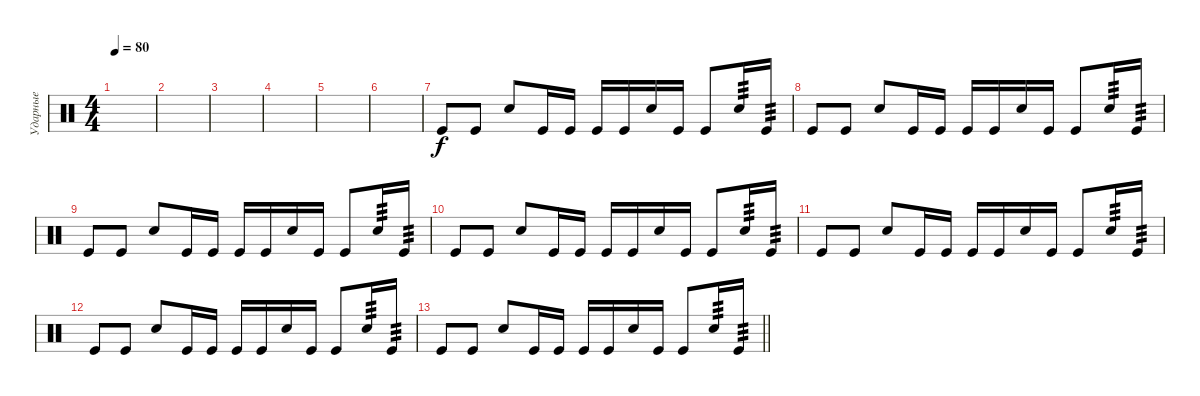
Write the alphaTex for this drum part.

\track ("Ударные" "Ударные") {instrument percussion}
\staff {score}
\articulation defaults
\ts (4 4)
\tempo 80
\clef neutral
\ks c
|
|
|
|
|
|
"Kick (hit)".8 "Kick (hit)".8 "Electric Snare (hit)".8 "Kick (hit)".16 "Kick (hit)".16 "Kick (hit)".16 "Kick (hit)".16 "Electric Snare (hit)".16 "Kick (hit)".16 "Kick (hit)".8 "Electric Snare (hit)".16{tp 3} "Kick (hit)".16{tp 3} |
"Kick (hit)".8 "Kick (hit)".8 "Electric Snare (hit)".8 "Kick (hit)".16 "Kick (hit)".16 "Kick (hit)".16 "Kick (hit)".16 "Electric Snare (hit)".16 "Kick (hit)".16 "Kick (hit)".8 "Electric Snare (hit)".16{tp 3} "Kick (hit)".16{tp 3} |
"Kick (hit)".8 "Kick (hit)".8 "Electric Snare (hit)".8 "Kick (hit)".16 "Kick (hit)".16 "Kick (hit)".16 "Kick (hit)".16 "Electric Snare (hit)".16 "Kick (hit)".16 "Kick (hit)".8 "Electric Snare (hit)".16{tp 3} "Kick (hit)".16{tp 3} |
"Kick (hit)".8 "Kick (hit)".8 "Electric Snare (hit)".8 "Kick (hit)".16 "Kick (hit)".16 "Kick (hit)".16 "Kick (hit)".16 "Electric Snare (hit)".16 "Kick (hit)".16 "Kick (hit)".8 "Electric Snare (hit)".16{tp 3} "Kick (hit)".16{tp 3} |
"Kick (hit)".8 "Kick (hit)".8 "Electric Snare (hit)".8 "Kick (hit)".16 "Kick (hit)".16 "Kick (hit)".16 "Kick (hit)".16 "Electric Snare (hit)".16 "Kick (hit)".16 "Kick (hit)".8 "Electric Snare (hit)".16{tp 3} "Kick (hit)".16{tp 3} |
"Kick (hit)".8 "Kick (hit)".8 "Electric Snare (hit)".8 "Kick (hit)".16 "Kick (hit)".16 "Kick (hit)".16 "Kick (hit)".16 "Electric Snare (hit)".16 "Kick (hit)".16 "Kick (hit)".8 "Electric Snare (hit)".16{tp 3} "Kick (hit)".16{tp 3} |
\barLineRight lightlight "Kick (hit)".8 "Kick (hit)".8 "Electric Snare (hit)".8 "Kick (hit)".16 "Kick (hit)".16 "Kick (hit)".16 "Kick (hit)".16 "Electric Snare (hit)".16 "Kick (hit)".16 "Kick (hit)".8 "Electric Snare (hit)".16{tp 3} "Kick (hit)".16{tp 3}
